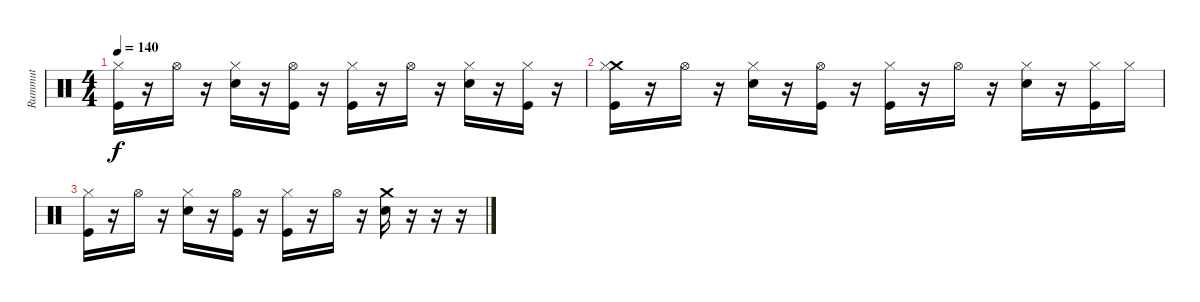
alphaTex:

\track ("Rummut" "Rummut") {instrument percussion}
\staff {score}
\articulation defaults
\ts (4 4)
\tempo 140
\clef neutral
\ks c
("Hi-Hat (closed)" "Kick (hit)").16{dy f} r.16 "Hi-Hat (open)".16 r.16 ("Hi-Hat (closed)" "Snare (hit) 2").16 r.16 ("Hi-Hat (open)" "Kick (hit)").16 r.16 ("Hi-Hat (closed)" "Kick (hit)").16 r.16 "Hi-Hat (open)".16 r.16 ("Hi-Hat (closed)" "Snare (hit) 2").16 r.16 ("Hi-Hat (closed)" "Kick (hit)").16 r.16 |
("Crash medium (hit)" "Hi-Hat (closed)" "Kick (hit)").16 r.16 "Hi-Hat (open)".16 r.16 ("Hi-Hat (closed)" "Snare (hit) 2").16 r.16 ("Hi-Hat (open)" "Kick (hit)").16 r.16 ("Hi-Hat (closed)" "Kick (hit)").16 r.16 "Hi-Hat (open)".16 r.16 ("Hi-Hat (closed)" "Snare (hit) 2").16 r.16 ("Hi-Hat (closed)" "Kick (hit)").16 "Hi-Hat (closed)".16 |
("Hi-Hat (closed)" "Kick (hit)").16 r.16 "Hi-Hat (open)".16 r.16 ("Hi-Hat (closed)" "Snare (hit) 2").16 r.16 ("Hi-Hat (open)" "Kick (hit)").16 r.16 ("Hi-Hat (closed)" "Kick (hit)").16 r.16 "Hi-Hat (open)".16 r.16 ("Crash medium (hit)" "Snare (hit) 2").16 r.16 r.16 r.16
